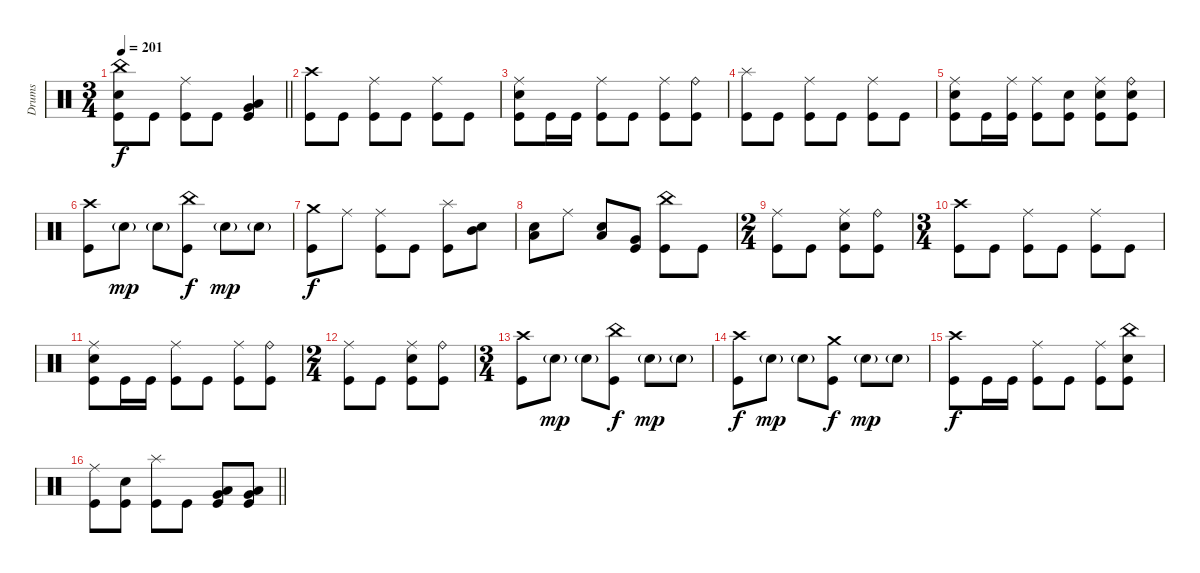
\track ("Drums" "Drums") {instrument percussion}
\staff
\articulation defaults
\ts (3 4)
\tempo 201
\clef neutral
\barLineRight lightlight
\ks c
("China (hit)" "Electric Snare (hit)" "Kick (hit)").8{dy f} "Kick (hit)".8 ("Ride (middle)" "Kick (hit)").8 "Kick (hit)".8 ("Very Low Tom (hit)" "Low Floor Tom (hit)" "Kick (hit)").4 |
("Crash high (hit)" "Kick (hit)").8 "Kick (hit)".8 ("Ride (middle)" "Kick (hit)").8 "Kick (hit)".8 ("Ride (middle)" "Kick (hit)").8 "Kick (hit)".8 |
("Ride (middle)" "Electric Snare (hit)" "Kick (hit)").8 "Kick (hit)".16 "Kick (hit)".16 ("Ride (middle)" "Kick (hit)").8 "Kick (hit)".8 ("Ride (middle)" "Kick (hit)").8 ("Ride (bell)" "Kick (hit)").8 |
("Splash (hit)" "Kick (hit)").8 "Kick (hit)".8 ("Ride (middle)" "Kick (hit)").8 "Kick (hit)".8 ("Ride (middle)" "Kick (hit)").8 "Kick (hit)".8 |
("Ride (middle)" "Electric Snare (hit)" "Kick (hit)").8 "Kick (hit)".16 ("Ride (middle)" "Kick (hit)").16 ("Ride (middle)" "Kick (hit)").8 ("Electric Snare (hit)" "Kick (hit)").8 ("Ride (middle)" "Electric Snare (hit)" "Kick (hit)").8 ("Ride (bell)" "Electric Snare (hit)" "Kick (hit)").8 |
("Crash high (hit)" "Kick (hit)").8 "Electric Snare (hit)"{g}.8{dy mp} "Electric Snare (hit)"{g}.8 ("China (hit)" "Kick (hit)").8{dy f} "Electric Snare (hit)"{g}.8{dy mp} "Electric Snare (hit)"{g}.8 |
("Crash medium (hit)" "Kick (hit)").8{dy f} "Ride (middle)".8 ("Ride (middle)" "Kick (hit)").8 "Kick (hit)".8 ("Splash (hit)" "Kick (hit)").8 ("Mid Tom (hit)" "Electric Snare (hit)").8 |
("Low Tom (hit)" "Electric Snare (hit)").8 "Ride (middle)".8 ("Low Tom (hit)" "Electric Snare (hit)").8 ("Very Low Tom (hit)" "Kick (hit)").8 ("China (hit)" "Kick (hit)").8 "Kick (hit)".8 |
\ts (2 4)
("Ride (middle)" "Kick (hit)").8 "Kick (hit)".8 ("Ride (middle)" "Electric Snare (hit)" "Kick (hit)").8 ("Ride (bell)" "Kick (hit)").8 |
\ts (3 4)
("Crash high (hit)" "Kick (hit)").8 "Kick (hit)".8 ("Ride (middle)" "Kick (hit)").8 "Kick (hit)".8 ("Ride (middle)" "Kick (hit)").8 "Kick (hit)".8 |
("Ride (middle)" "Electric Snare (hit)" "Kick (hit)").8 "Kick (hit)".16 "Kick (hit)".16 ("Ride (middle)" "Kick (hit)").8 "Kick (hit)".8 ("Ride (middle)" "Kick (hit)").8 ("Ride (bell)" "Kick (hit)").8 |
\ts (2 4)
("Ride (middle)" "Kick (hit)").8 "Kick (hit)".8 ("Ride (middle)" "Electric Snare (hit)" "Kick (hit)").8 ("Ride (bell)" "Kick (hit)").8 |
\ts (3 4)
("Crash high (hit)" "Kick (hit)").8 "Electric Snare (hit)"{g}.8{dy mp} "Electric Snare (hit)"{g}.8 ("China (hit)" "Kick (hit)").8{dy f} "Electric Snare (hit)"{g}.8{dy mp} "Electric Snare (hit)"{g}.8 |
("Crash high (hit)" "Kick (hit)").8{dy f} "Electric Snare (hit)"{g}.8{dy mp} "Electric Snare (hit)"{g}.8 ("Crash medium (hit)" "Kick (hit)").8{dy f} "Electric Snare (hit)"{g}.8{dy mp} "Electric Snare (hit)"{g}.8 |
("Crash high (hit)" "Kick (hit)").8{dy f} "Kick (hit)".16 "Kick (hit)".16 ("Ride (middle)" "Kick (hit)").8 "Kick (hit)".8 ("Ride (middle)" "Kick (hit)").8 ("China (hit)" "Electric Snare (hit)" "Kick (hit)").8 |
\barLineRight lightlight
("Ride (middle)" "Kick (hit)").8 ("Electric Snare (hit)" "Kick (hit)").8 ("Splash (hit)" "Kick (hit)").8 "Kick (hit)".8 ("Very Low Tom (hit)" "Low Floor Tom (hit)" "Kick (hit)").8 ("Very Low Tom (hit)" "Low Floor Tom (hit)" "Kick (hit)").8
